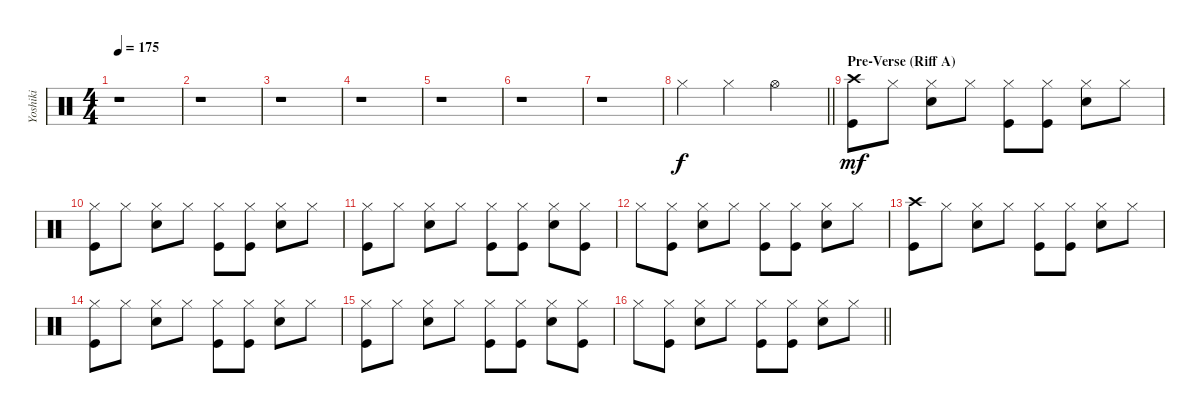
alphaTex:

\track ("Yoshiki" "Yoshiki") {instrument percussion}
\staff {score}
\articulation defaults
\ts (4 4)
\tempo 175
\clef neutral
\ks c
r.1{dy f} |
r.1 |
r.1 |
r.1 |
r.1 |
r.1 |
r.1 |
\barLineRight lightlight "Hi-Hat (closed)".4 "Hi-Hat (closed)".4 "Hi-Hat (open)".2
|
\section ("" "Pre-Verse (Riff A)")
("Crash high (hit)" "Kick (hit)").8{dy mf} "Hi-Hat (closed)".8 ("Snare (hit) 2" "Hi-Hat (closed)").8 "Hi-Hat (closed)".8 ("Hi-Hat (closed)" "Kick (hit)").8 ("Hi-Hat (closed)" "Kick (hit)").8 ("Snare (hit) 2" "Hi-Hat (closed)").8 "Hi-Hat (closed)".8 |
("Hi-Hat (closed)" "Kick (hit)").8 "Hi-Hat (closed)".8 ("Snare (hit) 2" "Hi-Hat (closed)").8 "Hi-Hat (closed)".8 ("Hi-Hat (closed)" "Kick (hit)").8 ("Hi-Hat (closed)" "Kick (hit)").8 ("Snare (hit) 2" "Hi-Hat (closed)").8 "Hi-Hat (closed)".8 |
("Hi-Hat (closed)" "Kick (hit)").8 "Hi-Hat (closed)".8 ("Snare (hit) 2" "Hi-Hat (closed)").8 "Hi-Hat (closed)".8 ("Hi-Hat (closed)" "Kick (hit)").8 ("Hi-Hat (closed)" "Kick (hit)").8 ("Snare (hit) 2" "Hi-Hat (closed)").8 ("Hi-Hat (closed)" "Kick (hit)").8 |
"Hi-Hat (closed)".8 ("Hi-Hat (closed)" "Kick (hit)").8 ("Snare (hit) 2" "Hi-Hat (closed)").8 "Hi-Hat (closed)".8 ("Kick (hit)" "Hi-Hat (closed)").8 ("Kick (hit)" "Hi-Hat (closed)").8 ("Snare (hit) 2" "Hi-Hat (closed)").8 "Hi-Hat (closed)".8 |
("Crash high (hit)" "Kick (hit)").8 "Hi-Hat (closed)".8 ("Snare (hit) 2" "Hi-Hat (closed)").8 "Hi-Hat (closed)".8 ("Hi-Hat (closed)" "Kick (hit)").8 ("Hi-Hat (closed)" "Kick (hit)").8 ("Snare (hit) 2" "Hi-Hat (closed)").8 "Hi-Hat (closed)".8 |
("Hi-Hat (closed)" "Kick (hit)").8 "Hi-Hat (closed)".8 ("Snare (hit) 2" "Hi-Hat (closed)").8 "Hi-Hat (closed)".8 ("Hi-Hat (closed)" "Kick (hit)").8 ("Hi-Hat (closed)" "Kick (hit)").8 ("Snare (hit) 2" "Hi-Hat (closed)").8 "Hi-Hat (closed)".8 |
("Hi-Hat (closed)" "Kick (hit)").8 "Hi-Hat (closed)".8 ("Snare (hit) 2" "Hi-Hat (closed)").8 "Hi-Hat (closed)".8 ("Hi-Hat (closed)" "Kick (hit)").8 ("Hi-Hat (closed)" "Kick (hit)").8 ("Snare (hit) 2" "Hi-Hat (closed)").8 ("Hi-Hat (closed)" "Kick (hit)").8 |
\barLineRight lightlight "Hi-Hat (closed)".8
("Hi-Hat (closed)" "Kick (hit)").8 ("Snare (hit) 2" "Hi-Hat (closed)").8 "Hi-Hat (closed)".8 ("Kick (hit)" "Hi-Hat (closed)").8 ("Kick (hit)" "Hi-Hat (closed)").8 ("Snare (hit) 2" "Hi-Hat (closed)").8 "Hi-Hat (closed)".8
